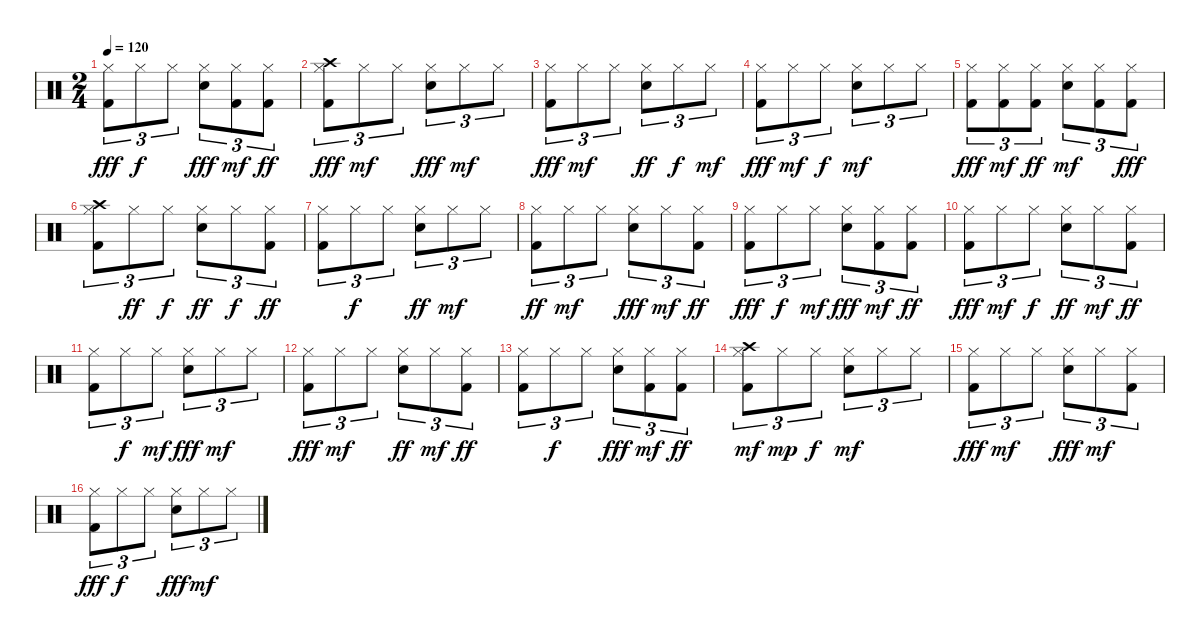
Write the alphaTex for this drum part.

\track "" {instrument percussion}
\staff {score}
\articulation defaults
\ts (2 4)
\tempo 120
\clef neutral
\ks c
("Kick (hit) 2" "Hi-Hat (closed)").8{tu (3 2) dy fff} "Hi-Hat (closed)".8{tu (3 2) dy f} "Hi-Hat (closed)".8{tu (3 2)} ("Snare (hit) 2" "Hi-Hat (closed)").8{tu (3 2) dy fff} ("Kick (hit) 2" "Hi-Hat (closed)").8{tu (3 2) dy mf} ("Hi-Hat (closed)" "Kick (hit) 2").8{tu (3 2) dy ff} |
("Crash high (hit)" "Kick (hit) 2" "Hi-Hat (closed)").8{tu (3 2) dy fff} "Hi-Hat (closed)".8{tu (3 2) dy mf} "Hi-Hat (closed)".8{tu (3 2)} ("Hi-Hat (closed)" "Snare (hit) 2").8{tu (3 2) dy fff} "Hi-Hat (closed)".8{tu (3 2) dy mf} "Hi-Hat (closed)".8{tu (3 2)} |
("Kick (hit) 2" "Hi-Hat (closed)").8{tu (3 2) dy fff} "Hi-Hat (closed)".8{tu (3 2) dy mf} "Hi-Hat (closed)".8{tu (3 2)} ("Snare (hit) 2" "Hi-Hat (closed)").8{tu (3 2) dy ff} "Hi-Hat (closed)".8{tu (3 2) dy f} "Hi-Hat (closed)".8{tu (3 2) dy mf} |
("Kick (hit) 2" "Hi-Hat (closed)").8{tu (3 2) dy fff} "Hi-Hat (closed)".8{tu (3 2) dy mf} "Hi-Hat (closed)".8{tu (3 2) dy f} ("Snare (hit) 2" "Hi-Hat (closed)").8{tu (3 2) dy mf} "Hi-Hat (closed)".8{tu (3 2)} "Hi-Hat (closed)".8{tu (3 2)} |
("Kick (hit) 2" "Hi-Hat (closed)").8{tu (3 2) dy fff} ("Hi-Hat (closed)" "Kick (hit) 2").8{tu (3 2) dy mf} ("Kick (hit) 2" "Hi-Hat (closed)").8{tu (3 2) dy ff} ("Snare (hit) 2" "Hi-Hat (closed)").8{tu (3 2) dy mf} ("Kick (hit) 2" "Hi-Hat (closed)").8{tu (3 2)} ("Kick (hit) 2" "Hi-Hat (closed)").8{tu (3 2) dy fff} |
("Crash high (hit)" "Hi-Hat (closed)" "Kick (hit) 2").8{tu (3 2)} "Hi-Hat (closed)".8{tu (3 2) dy ff} "Hi-Hat (closed)".8{tu (3 2) dy f} ("Snare (hit) 2" "Hi-Hat (closed)").8{tu (3 2) dy ff} "Hi-Hat (closed)".8{tu (3 2) dy f} ("Kick (hit) 2" "Hi-Hat (closed)").8{tu (3 2) dy ff} |
("Kick (hit) 2" "Hi-Hat (closed)").8{tu (3 2)} "Hi-Hat (closed)".8{tu (3 2) dy f} "Hi-Hat (closed)".8{tu (3 2)} ("Snare (hit) 2" "Hi-Hat (closed)").8{tu (3 2) dy ff} "Hi-Hat (closed)".8{tu (3 2) dy mf} "Hi-Hat (closed)".8{tu (3 2)} |
("Kick (hit) 2" "Hi-Hat (closed)").8{tu (3 2) dy ff} "Hi-Hat (closed)".8{tu (3 2) dy mf} "Hi-Hat (closed)".8{tu (3 2)} ("Snare (hit) 2" "Hi-Hat (closed)").8{tu (3 2) dy fff} "Hi-Hat (closed)".8{tu (3 2) dy mf} ("Hi-Hat (closed)" "Kick (hit) 2").8{tu (3 2) dy ff} |
("Hi-Hat (closed)" "Kick (hit) 2").8{tu (3 2) dy fff} "Hi-Hat (closed)".8{tu (3 2) dy f} "Hi-Hat (closed)".8{tu (3 2) dy mf} ("Snare (hit) 2" "Hi-Hat (closed)").8{tu (3 2) dy fff} ("Kick (hit) 2" "Hi-Hat (closed)").8{tu (3 2) dy mf} ("Hi-Hat (closed)" "Kick (hit) 2").8{tu (3 2) dy ff} |
("Hi-Hat (closed)" "Kick (hit) 2").8{tu (3 2) dy fff} "Hi-Hat (closed)".8{tu (3 2) dy mf} "Hi-Hat (closed)".8{tu (3 2) dy f} ("Snare (hit) 2" "Hi-Hat (closed)").8{tu (3 2) dy ff} "Hi-Hat (closed)".8{tu (3 2) dy mf} ("Hi-Hat (closed)" "Kick (hit) 2").8{tu (3 2) dy ff} |
("Kick (hit) 2" "Hi-Hat (closed)").8{tu (3 2)} "Hi-Hat (closed)".8{tu (3 2) dy f} "Hi-Hat (closed)".8{tu (3 2) dy mf} ("Snare (hit) 2" "Hi-Hat (closed)").8{tu (3 2) dy fff} "Hi-Hat (closed)".8{tu (3 2) dy mf} "Hi-Hat (closed)".8{tu (3 2)} |
("Kick (hit) 2" "Hi-Hat (closed)").8{tu (3 2) dy fff} "Hi-Hat (closed)".8{tu (3 2) dy mf} "Hi-Hat (closed)".8{tu (3 2)} ("Snare (hit) 2" "Hi-Hat (closed)").8{tu (3 2) dy ff} "Hi-Hat (closed)".8{tu (3 2) dy mf} ("Hi-Hat (closed)" "Kick (hit) 2").8{tu (3 2) dy ff} |
("Hi-Hat (closed)" "Kick (hit) 2").8{tu (3 2)} "Hi-Hat (closed)".8{tu (3 2) dy f} "Hi-Hat (closed)".8{tu (3 2)} ("Snare (hit) 2" "Hi-Hat (closed)").8{tu (3 2) dy fff} ("Kick (hit) 2" "Hi-Hat (closed)").8{tu (3 2) dy mf} ("Hi-Hat (closed)" "Kick (hit) 2").8{tu (3 2) dy ff} |
("Kick (hit) 2" "Hi-Hat (closed)" "Crash high (hit)").8{tu (3 2) dy mf} "Hi-Hat (closed)".8{tu (3 2) dy mp} "Hi-Hat (closed)".8{tu (3 2) dy f} ("Snare (hit) 2" "Hi-Hat (closed)").8{tu (3 2) dy mf} "Hi-Hat (closed)".8{tu (3 2)} "Hi-Hat (closed)".8{tu (3 2)} |
("Kick (hit) 2" "Hi-Hat (closed)").8{tu (3 2) dy fff} "Hi-Hat (closed)".8{tu (3 2) dy mf} "Hi-Hat (closed)".8{tu (3 2)} ("Snare (hit) 2" "Hi-Hat (closed)").8{tu (3 2) dy fff} "Hi-Hat (closed)".8{tu (3 2) dy mf} ("Hi-Hat (closed)" "Kick (hit) 2").8{tu (3 2)} |
("Kick (hit) 2" "Hi-Hat (closed)").8{tu (3 2) dy fff} "Hi-Hat (closed)".8{tu (3 2) dy f} "Hi-Hat (closed)".8{tu (3 2)} ("Snare (hit) 2" "Hi-Hat (closed)").8{tu (3 2) dy fff} "Hi-Hat (closed)".8{tu (3 2) dy mf} "Hi-Hat (closed)".8{tu (3 2)}
